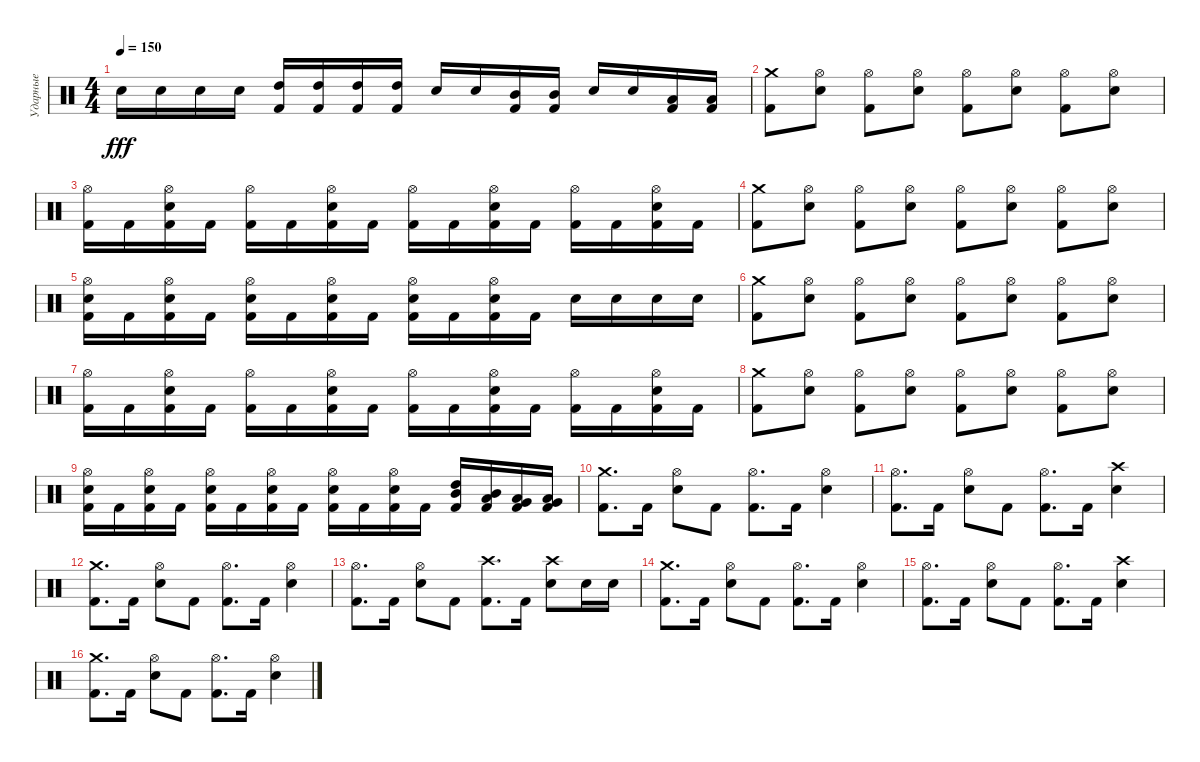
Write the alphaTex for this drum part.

\track ("Ударные" "Ударные") {instrument percussion}
\staff {score}
\articulation defaults
\ts (4 4)
\tempo 150
\clef neutral
\ks c "Electric Snare (hit)".16{dy fff} "Electric Snare (hit)".16 "Electric Snare (hit)".16 "Electric Snare (hit)".16
("High Tom (hit)" "Kick (hit) 2").16 ("High Tom (hit)" "Kick (hit) 2").16 ("High Tom (hit)" "Kick (hit) 2").16 ("High Tom (hit)" "Kick (hit) 2").16 "Electric Snare (hit)".16 "Electric Snare (hit)".16 ("Mid Tom (hit)" "Kick (hit) 2").16 ("Mid Tom (hit)" "Kick (hit) 2").16 "Electric Snare (hit)".16 "Electric Snare (hit)".16 ("Low Tom (hit)" "Kick (hit) 2").16 ("Low Tom (hit)" "Kick (hit) 2").16 |
("Crash medium (hit)" "Kick (hit) 2").8 ("Hi-Hat (open)" "Electric Snare (hit)").8 ("Hi-Hat (open)" "Kick (hit) 2").8 ("Hi-Hat (open)" "Electric Snare (hit)").8 ("Hi-Hat (open)" "Kick (hit) 2").8 ("Hi-Hat (open)" "Electric Snare (hit)").8 ("Hi-Hat (open)" "Kick (hit) 2").8 ("Hi-Hat (open)" "Electric Snare (hit)").8 |
("Hi-Hat (open)" "Kick (hit) 2").16 "Kick (hit) 2".16 ("Hi-Hat (open)" "Electric Snare (hit)" "Kick (hit) 2").16 "Kick (hit) 2".16 ("Hi-Hat (open)" "Kick (hit) 2").16 "Kick (hit) 2".16 ("Hi-Hat (open)" "Electric Snare (hit)" "Kick (hit) 2").16 "Kick (hit) 2".16 ("Hi-Hat (open)" "Kick (hit) 2").16 "Kick (hit) 2".16 ("Hi-Hat (open)" "Electric Snare (hit)" "Kick (hit) 2").16 "Kick (hit) 2".16 ("Hi-Hat (open)" "Kick (hit) 2").16 "Kick (hit) 2".16 ("Hi-Hat (open)" "Electric Snare (hit)" "Kick (hit) 2").16 "Kick (hit) 2".16 |
("Crash medium (hit)" "Kick (hit) 2").8 ("Hi-Hat (open)" "Electric Snare (hit)").8 ("Hi-Hat (open)" "Kick (hit) 2").8 ("Hi-Hat (open)" "Electric Snare (hit)").8 ("Hi-Hat (open)" "Kick (hit) 2").8 ("Hi-Hat (open)" "Electric Snare (hit)").8 ("Hi-Hat (open)" "Kick (hit) 2").8 ("Hi-Hat (open)" "Electric Snare (hit)").8 |
("Hi-Hat (open)" "Electric Snare (hit)" "Kick (hit) 2").16 "Kick (hit) 2".16 ("Hi-Hat (open)" "Electric Snare (hit)" "Kick (hit) 2").16 "Kick (hit) 2".16 ("Hi-Hat (open)" "Electric Snare (hit)" "Kick (hit) 2").16 "Kick (hit) 2".16 ("Hi-Hat (open)" "Electric Snare (hit)" "Kick (hit) 2").16 "Kick (hit) 2".16 ("Hi-Hat (open)" "Electric Snare (hit)" "Kick (hit) 2").16 "Kick (hit) 2".16 ("Hi-Hat (open)" "Electric Snare (hit)" "Kick (hit) 2").16 "Kick (hit) 2".16 "Electric Snare (hit)".16 "Electric Snare (hit)".16 "Electric Snare (hit)".16 "Electric Snare (hit)".16 |
("Crash medium (hit)" "Kick (hit) 2").8 ("Hi-Hat (open)" "Electric Snare (hit)").8 ("Hi-Hat (open)" "Kick (hit) 2").8 ("Hi-Hat (open)" "Electric Snare (hit)").8 ("Hi-Hat (open)" "Kick (hit) 2").8 ("Hi-Hat (open)" "Electric Snare (hit)").8 ("Hi-Hat (open)" "Kick (hit) 2").8 ("Hi-Hat (open)" "Electric Snare (hit)").8 |
("Hi-Hat (open)" "Kick (hit) 2").16 "Kick (hit) 2".16 ("Hi-Hat (open)" "Electric Snare (hit)" "Kick (hit) 2").16 "Kick (hit) 2".16 ("Hi-Hat (open)" "Kick (hit) 2").16 "Kick (hit) 2".16 ("Hi-Hat (open)" "Electric Snare (hit)" "Kick (hit) 2").16 "Kick (hit) 2".16 ("Hi-Hat (open)" "Kick (hit) 2").16 "Kick (hit) 2".16 ("Hi-Hat (open)" "Electric Snare (hit)" "Kick (hit) 2").16 "Kick (hit) 2".16 ("Hi-Hat (open)" "Kick (hit) 2").16 "Kick (hit) 2".16 ("Hi-Hat (open)" "Electric Snare (hit)" "Kick (hit) 2").16 "Kick (hit) 2".16 |
("Crash medium (hit)" "Kick (hit) 2").8 ("Hi-Hat (open)" "Electric Snare (hit)").8 ("Hi-Hat (open)" "Kick (hit) 2").8 ("Hi-Hat (open)" "Electric Snare (hit)").8 ("Hi-Hat (open)" "Kick (hit) 2").8 ("Hi-Hat (open)" "Electric Snare (hit)").8 ("Hi-Hat (open)" "Kick (hit) 2").8 ("Hi-Hat (open)" "Electric Snare (hit)").8 |
("Hi-Hat (open)" "Electric Snare (hit)" "Kick (hit) 2").16 "Kick (hit) 2".16 ("Hi-Hat (open)" "Electric Snare (hit)" "Kick (hit) 2").16 "Kick (hit) 2".16 ("Hi-Hat (open)" "Electric Snare (hit)" "Kick (hit) 2").16 "Kick (hit) 2".16 ("Hi-Hat (open)" "Electric Snare (hit)" "Kick (hit) 2").16 "Kick (hit) 2".16 ("Hi-Hat (open)" "Electric Snare (hit)" "Kick (hit) 2").16 "Kick (hit) 2".16 ("Hi-Hat (open)" "Electric Snare (hit)" "Kick (hit) 2").16 "Kick (hit) 2".16 ("Mid Tom (hit)" "High Tom (hit)" "Kick (hit) 2").16 ("Low Tom (hit)" "Mid Tom (hit)" "Kick (hit) 2").16 ("Low Tom (hit)" "Very Low Tom (hit)" "Kick (hit) 2").16 ("Very Low Tom (hit)" "Low Floor Tom (hit)" "Kick (hit) 2").16 |
("Crash medium (hit)" "Kick (hit) 2").8{d} "Kick (hit) 2".16 ("Hi-Hat (open)" "Electric Snare (hit)").8 "Kick (hit) 2".8 ("Hi-Hat (open)" "Kick (hit) 2").8{d} "Kick (hit) 2".16 ("Hi-Hat (open)" "Electric Snare (hit)").4 |
("Hi-Hat (open)" "Kick (hit) 2").8{d} "Kick (hit) 2".16 ("Hi-Hat (open)" "Electric Snare (hit)").8 "Kick (hit) 2".8 ("Hi-Hat (open)" "Kick (hit) 2").8{d} "Kick (hit) 2".16 ("Crash high (hit)" "Electric Snare (hit)").4 |
("Crash medium (hit)" "Kick (hit) 2").8{d} "Kick (hit) 2".16 ("Hi-Hat (open)" "Electric Snare (hit)").8 "Kick (hit) 2".8 ("Hi-Hat (open)" "Kick (hit) 2").8{d} "Kick (hit) 2".16 ("Hi-Hat (open)" "Electric Snare (hit)").4 |
("Hi-Hat (open)" "Kick (hit) 2").8{d} "Kick (hit) 2".16 ("Hi-Hat (open)" "Electric Snare (hit)").8 "Kick (hit) 2".8 ("Crash high (hit)" "Kick (hit) 2").8{d} "Kick (hit) 2".16 ("Crash high (hit)" "Electric Snare (hit)").8 "Electric Snare (hit)".16 "Electric Snare (hit)".16 |
("Crash medium (hit)" "Kick (hit) 2").8{d} "Kick (hit) 2".16 ("Hi-Hat (open)" "Electric Snare (hit)").8 "Kick (hit) 2".8 ("Hi-Hat (open)" "Kick (hit) 2").8{d} "Kick (hit) 2".16 ("Hi-Hat (open)" "Electric Snare (hit)").4 |
("Hi-Hat (open)" "Kick (hit) 2").8{d} "Kick (hit) 2".16 ("Hi-Hat (open)" "Electric Snare (hit)").8 "Kick (hit) 2".8 ("Hi-Hat (open)" "Kick (hit) 2").8{d} "Kick (hit) 2".16 ("Crash high (hit)" "Electric Snare (hit)").4 |
("Crash medium (hit)" "Kick (hit) 2").8{d} "Kick (hit) 2".16 ("Hi-Hat (open)" "Electric Snare (hit)").8 "Kick (hit) 2".8 ("Hi-Hat (open)" "Kick (hit) 2").8{d} "Kick (hit) 2".16 ("Hi-Hat (open)" "Electric Snare (hit)").4
